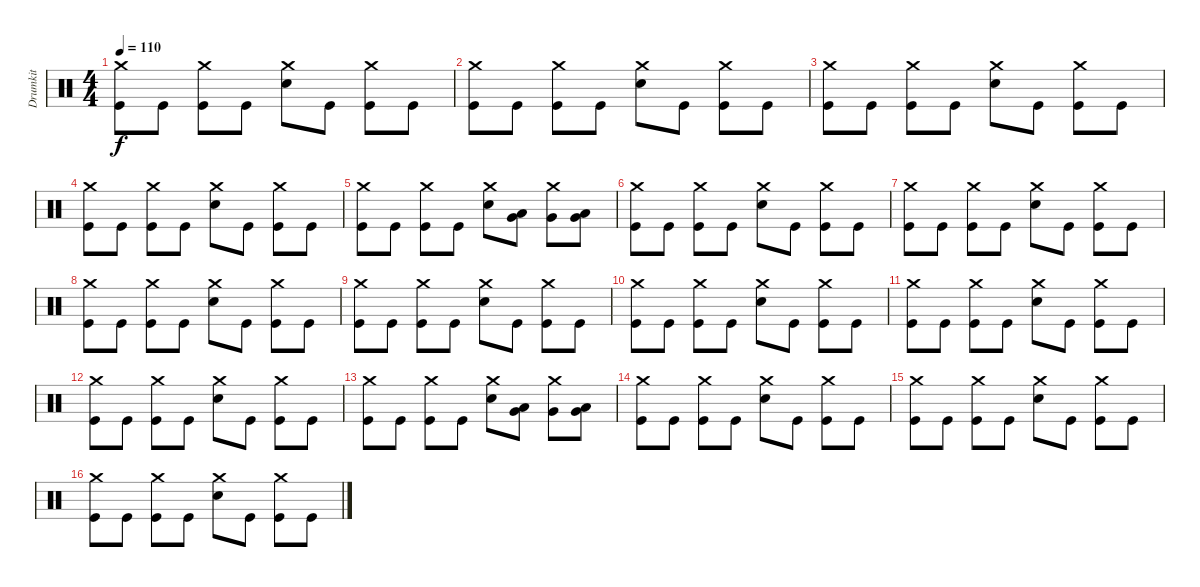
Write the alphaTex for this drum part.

\track ("Drumkit" "Drumkit") {instrument percussion}
\staff {score}
\articulation defaults
\ts (4 4)
\tempo 110
\clef neutral
\ks c
("Crash medium (hit)" "Kick (hit)").8{dy f} "Kick (hit)".8 ("Crash medium (hit)" "Kick (hit)").8 "Kick (hit)".8 ("Crash medium (hit)" "Snare (hit) 2").8 "Kick (hit)".8 ("Crash medium (hit)" "Kick (hit)").8 "Kick (hit)".8 |
("Crash medium (hit)" "Kick (hit)").8 "Kick (hit)".8 ("Crash medium (hit)" "Kick (hit)").8 "Kick (hit)".8 ("Crash medium (hit)" "Snare (hit) 2").8 "Kick (hit)".8 ("Crash medium (hit)" "Kick (hit)").8 "Kick (hit)".8 |
("Crash medium (hit)" "Kick (hit)").8 "Kick (hit)".8 ("Crash medium (hit)" "Kick (hit)").8 "Kick (hit)".8 ("Crash medium (hit)" "Snare (hit) 2").8 "Kick (hit)".8 ("Crash medium (hit)" "Kick (hit)").8 "Kick (hit)".8 |
("Crash medium (hit)" "Kick (hit)").8 "Kick (hit)".8 ("Crash medium (hit)" "Kick (hit)").8 "Kick (hit)".8 ("Crash medium (hit)" "Snare (hit) 2").8 "Kick (hit)".8 ("Crash medium (hit)" "Kick (hit)").8 "Kick (hit)".8 |
("Crash medium (hit)" "Kick (hit)").8 "Kick (hit)".8 ("Crash medium (hit)" "Kick (hit)").8 "Kick (hit)".8 ("Crash medium (hit)" "Snare (hit) 2").8 ("Low Tom (hit)" "Very Low Tom (hit)").8 ("Crash medium (hit)" "Very Low Tom (hit)").8 ("Very Low Tom (hit)" "Low Floor Tom (hit)").8 |
("Crash medium (hit)" "Kick (hit)").8 "Kick (hit)".8 ("Crash medium (hit)" "Kick (hit)").8 "Kick (hit)".8 ("Crash medium (hit)" "Snare (hit) 2").8 "Kick (hit)".8 ("Crash medium (hit)" "Kick (hit)").8 "Kick (hit)".8 |
("Crash medium (hit)" "Kick (hit)").8 "Kick (hit)".8 ("Crash medium (hit)" "Kick (hit)").8 "Kick (hit)".8 ("Crash medium (hit)" "Snare (hit) 2").8 "Kick (hit)".8 ("Crash medium (hit)" "Kick (hit)").8 "Kick (hit)".8 |
("Crash medium (hit)" "Kick (hit)").8 "Kick (hit)".8 ("Crash medium (hit)" "Kick (hit)").8 "Kick (hit)".8 ("Crash medium (hit)" "Snare (hit) 2").8 "Kick (hit)".8 ("Crash medium (hit)" "Kick (hit)").8 "Kick (hit)".8 |
("Crash medium (hit)" "Kick (hit)").8 "Kick (hit)".8 ("Crash medium (hit)" "Kick (hit)").8 "Kick (hit)".8 ("Crash medium (hit)" "Snare (hit) 2").8 "Kick (hit)".8 ("Crash medium (hit)" "Kick (hit)").8 "Kick (hit)".8 |
("Crash medium (hit)" "Kick (hit)").8 "Kick (hit)".8 ("Crash medium (hit)" "Kick (hit)").8 "Kick (hit)".8 ("Crash medium (hit)" "Snare (hit) 2").8 "Kick (hit)".8 ("Crash medium (hit)" "Kick (hit)").8 "Kick (hit)".8 |
("Crash medium (hit)" "Kick (hit)").8 "Kick (hit)".8 ("Crash medium (hit)" "Kick (hit)").8 "Kick (hit)".8 ("Crash medium (hit)" "Snare (hit) 2").8 "Kick (hit)".8 ("Crash medium (hit)" "Kick (hit)").8 "Kick (hit)".8 |
("Crash medium (hit)" "Kick (hit)").8 "Kick (hit)".8 ("Crash medium (hit)" "Kick (hit)").8 "Kick (hit)".8 ("Crash medium (hit)" "Snare (hit) 2").8 "Kick (hit)".8 ("Crash medium (hit)" "Kick (hit)").8 "Kick (hit)".8 |
("Crash medium (hit)" "Kick (hit)").8 "Kick (hit)".8 ("Crash medium (hit)" "Kick (hit)").8 "Kick (hit)".8 ("Crash medium (hit)" "Snare (hit) 2").8 ("Low Tom (hit)" "Very Low Tom (hit)").8 ("Crash medium (hit)" "Very Low Tom (hit)").8 ("Very Low Tom (hit)" "Low Floor Tom (hit)").8 |
("Crash medium (hit)" "Kick (hit)").8 "Kick (hit)".8 ("Crash medium (hit)" "Kick (hit)").8 "Kick (hit)".8 ("Crash medium (hit)" "Snare (hit) 2").8 "Kick (hit)".8 ("Crash medium (hit)" "Kick (hit)").8 "Kick (hit)".8 |
("Crash medium (hit)" "Kick (hit)").8 "Kick (hit)".8 ("Crash medium (hit)" "Kick (hit)").8 "Kick (hit)".8 ("Crash medium (hit)" "Snare (hit) 2").8 "Kick (hit)".8 ("Crash medium (hit)" "Kick (hit)").8 "Kick (hit)".8 |
("Crash medium (hit)" "Kick (hit)").8 "Kick (hit)".8 ("Crash medium (hit)" "Kick (hit)").8 "Kick (hit)".8 ("Crash medium (hit)" "Snare (hit) 2").8 "Kick (hit)".8 ("Crash medium (hit)" "Kick (hit)").8 "Kick (hit)".8
